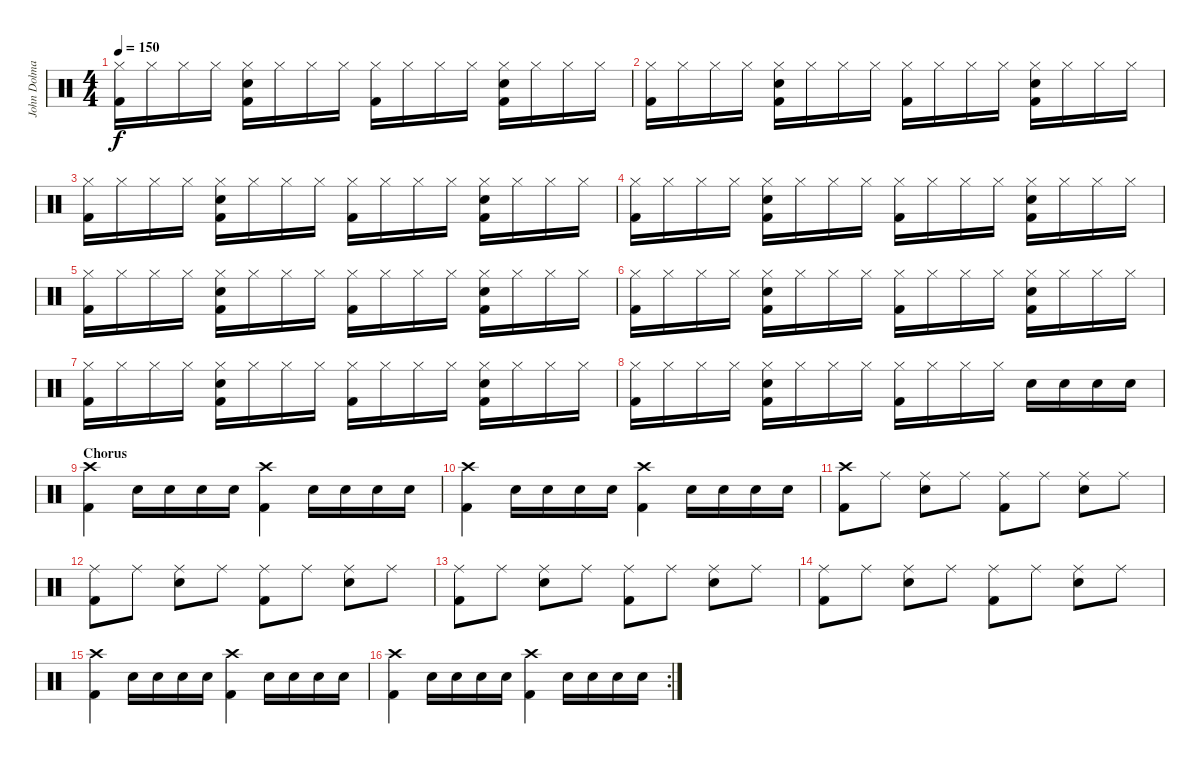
\track ("John Dolmayan" "John Dolma") {instrument percussion}
\staff {score}
\articulation defaults
\ts (4 4)
\tempo 150
\clef neutral
\ks c
("Hi-Hat (closed)" "Kick (hit) 2").16{dy f} "Hi-Hat (closed)".16 "Hi-Hat (closed)".16 "Hi-Hat (closed)".16 ("Hi-Hat (closed)" "Electric Snare (hit)" "Kick (hit) 2").16 "Hi-Hat (closed)".16 "Hi-Hat (closed)".16 "Hi-Hat (closed)".16 ("Hi-Hat (closed)" "Kick (hit) 2").16 "Hi-Hat (closed)".16 "Hi-Hat (closed)".16 "Hi-Hat (closed)".16 ("Hi-Hat (closed)" "Electric Snare (hit)" "Kick (hit) 2").16 "Hi-Hat (closed)".16 "Hi-Hat (closed)".16 "Hi-Hat (closed)".16 |
("Hi-Hat (closed)" "Kick (hit) 2").16 "Hi-Hat (closed)".16 "Hi-Hat (closed)".16 "Hi-Hat (closed)".16 ("Hi-Hat (closed)" "Electric Snare (hit)" "Kick (hit) 2").16 "Hi-Hat (closed)".16 "Hi-Hat (closed)".16 "Hi-Hat (closed)".16 ("Hi-Hat (closed)" "Kick (hit) 2").16 "Hi-Hat (closed)".16 "Hi-Hat (closed)".16 "Hi-Hat (closed)".16 ("Hi-Hat (closed)" "Electric Snare (hit)" "Kick (hit) 2").16 "Hi-Hat (closed)".16 "Hi-Hat (closed)".16 "Hi-Hat (closed)".16 |
("Hi-Hat (closed)" "Kick (hit) 2").16 "Hi-Hat (closed)".16 "Hi-Hat (closed)".16 "Hi-Hat (closed)".16 ("Hi-Hat (closed)" "Electric Snare (hit)" "Kick (hit) 2").16 "Hi-Hat (closed)".16 "Hi-Hat (closed)".16 "Hi-Hat (closed)".16 ("Hi-Hat (closed)" "Kick (hit) 2").16 "Hi-Hat (closed)".16 "Hi-Hat (closed)".16 "Hi-Hat (closed)".16 ("Hi-Hat (closed)" "Electric Snare (hit)" "Kick (hit) 2").16 "Hi-Hat (closed)".16 "Hi-Hat (closed)".16 "Hi-Hat (closed)".16 |
("Hi-Hat (closed)" "Kick (hit) 2").16 "Hi-Hat (closed)".16 "Hi-Hat (closed)".16 "Hi-Hat (closed)".16 ("Hi-Hat (closed)" "Electric Snare (hit)" "Kick (hit) 2").16 "Hi-Hat (closed)".16 "Hi-Hat (closed)".16 "Hi-Hat (closed)".16 ("Hi-Hat (closed)" "Kick (hit) 2").16 "Hi-Hat (closed)".16 "Hi-Hat (closed)".16 "Hi-Hat (closed)".16 ("Hi-Hat (closed)" "Electric Snare (hit)" "Kick (hit) 2").16 "Hi-Hat (closed)".16 "Hi-Hat (closed)".16 "Hi-Hat (closed)".16 |
("Hi-Hat (closed)" "Kick (hit) 2").16 "Hi-Hat (closed)".16 "Hi-Hat (closed)".16 "Hi-Hat (closed)".16 ("Hi-Hat (closed)" "Electric Snare (hit)" "Kick (hit) 2").16 "Hi-Hat (closed)".16 "Hi-Hat (closed)".16 "Hi-Hat (closed)".16 ("Hi-Hat (closed)" "Kick (hit) 2").16 "Hi-Hat (closed)".16 "Hi-Hat (closed)".16 "Hi-Hat (closed)".16 ("Hi-Hat (closed)" "Electric Snare (hit)" "Kick (hit) 2").16 "Hi-Hat (closed)".16 "Hi-Hat (closed)".16 "Hi-Hat (closed)".16 |
("Hi-Hat (closed)" "Kick (hit) 2").16 "Hi-Hat (closed)".16 "Hi-Hat (closed)".16 "Hi-Hat (closed)".16 ("Hi-Hat (closed)" "Electric Snare (hit)" "Kick (hit) 2").16 "Hi-Hat (closed)".16 "Hi-Hat (closed)".16 "Hi-Hat (closed)".16 ("Hi-Hat (closed)" "Kick (hit) 2").16 "Hi-Hat (closed)".16 "Hi-Hat (closed)".16 "Hi-Hat (closed)".16 ("Hi-Hat (closed)" "Electric Snare (hit)" "Kick (hit) 2").16 "Hi-Hat (closed)".16 "Hi-Hat (closed)".16 "Hi-Hat (closed)".16 |
("Hi-Hat (closed)" "Kick (hit) 2").16 "Hi-Hat (closed)".16 "Hi-Hat (closed)".16 "Hi-Hat (closed)".16 ("Hi-Hat (closed)" "Electric Snare (hit)" "Kick (hit) 2").16 "Hi-Hat (closed)".16 "Hi-Hat (closed)".16 "Hi-Hat (closed)".16 ("Hi-Hat (closed)" "Kick (hit) 2").16 "Hi-Hat (closed)".16 "Hi-Hat (closed)".16 "Hi-Hat (closed)".16 ("Hi-Hat (closed)" "Electric Snare (hit)" "Kick (hit) 2").16 "Hi-Hat (closed)".16 "Hi-Hat (closed)".16 "Hi-Hat (closed)".16 |
("Hi-Hat (closed)" "Kick (hit) 2").16 "Hi-Hat (closed)".16 "Hi-Hat (closed)".16 "Hi-Hat (closed)".16 ("Hi-Hat (closed)" "Electric Snare (hit)" "Kick (hit) 2").16 "Hi-Hat (closed)".16 "Hi-Hat (closed)".16 "Hi-Hat (closed)".16 ("Hi-Hat (closed)" "Kick (hit) 2").16 "Hi-Hat (closed)".16 "Hi-Hat (closed)".16 "Hi-Hat (closed)".16 "Electric Snare (hit)".16 "Electric Snare (hit)".16 "Electric Snare (hit)".16 "Electric Snare (hit)".16 |
\section ("" "Chorus")
("Crash high (hit)" "Kick (hit) 2").4 "Electric Snare (hit)".16 "Electric Snare (hit)".16 "Electric Snare (hit)".16 "Electric Snare (hit)".16 ("Crash high (hit)" "Kick (hit) 2").4 "Electric Snare (hit)".16 "Electric Snare (hit)".16 "Electric Snare (hit)".16 "Electric Snare (hit)".16 |
("Crash high (hit)" "Kick (hit) 2").4 "Electric Snare (hit)".16 "Electric Snare (hit)".16 "Electric Snare (hit)".16 "Electric Snare (hit)".16 ("Crash high (hit)" "Kick (hit) 2").4 "Electric Snare (hit)".16 "Electric Snare (hit)".16 "Electric Snare (hit)".16 "Electric Snare (hit)".16 |
("Crash high (hit)" "Kick (hit) 2").8 "Ride (middle)".8 ("Ride (middle)" "Electric Snare (hit)").8 "Ride (middle)".8 ("Ride (middle)" "Kick (hit) 2").8 "Ride (middle)".8 ("Ride (middle)" "Electric Snare (hit)").8 "Ride (middle)".8 |
("Ride (middle)" "Kick (hit) 2").8 "Ride (middle)".8 ("Ride (middle)" "Electric Snare (hit)").8 "Ride (middle)".8 ("Ride (middle)" "Kick (hit) 2").8 "Ride (middle)".8 ("Ride (middle)" "Electric Snare (hit)").8 "Ride (middle)".8 |
("Ride (middle)" "Kick (hit) 2").8 "Ride (middle)".8 ("Ride (middle)" "Electric Snare (hit)").8 "Ride (middle)".8 ("Ride (middle)" "Kick (hit) 2").8 "Ride (middle)".8 ("Ride (middle)" "Electric Snare (hit)").8 "Ride (middle)".8 |
("Ride (middle)" "Kick (hit) 2").8 "Ride (middle)".8 ("Ride (middle)" "Electric Snare (hit)").8 "Ride (middle)".8 ("Ride (middle)" "Kick (hit) 2").8 "Ride (middle)".8 ("Ride (middle)" "Electric Snare (hit)").8 "Ride (middle)".8 |
("Crash high (hit)" "Kick (hit) 2").4 "Electric Snare (hit)".16 "Electric Snare (hit)".16 "Electric Snare (hit)".16 "Electric Snare (hit)".16 ("Crash high (hit)" "Kick (hit) 2").4 "Electric Snare (hit)".16 "Electric Snare (hit)".16 "Electric Snare (hit)".16 "Electric Snare (hit)".16 |
\rc 2
("Crash high (hit)" "Kick (hit) 2").4 "Electric Snare (hit)".16 "Electric Snare (hit)".16 "Electric Snare (hit)".16 "Electric Snare (hit)".16 ("Crash high (hit)" "Kick (hit) 2").4 "Electric Snare (hit)".16 "Electric Snare (hit)".16 "Electric Snare (hit)".16 "Electric Snare (hit)".16
